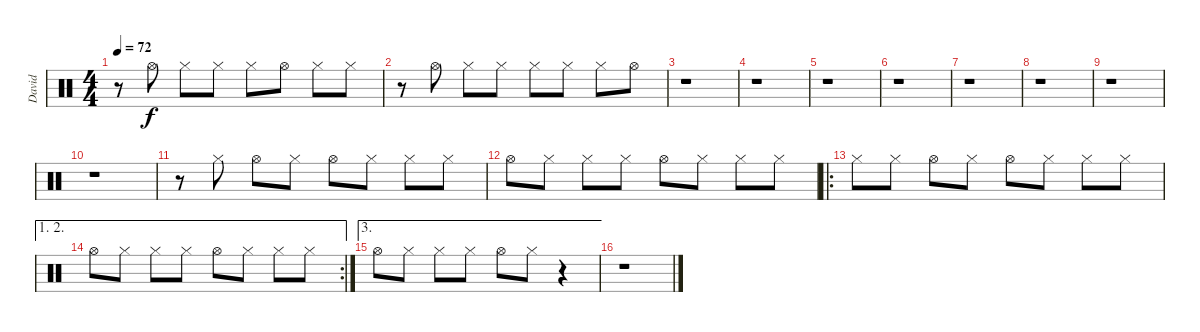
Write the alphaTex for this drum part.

\track ("David" "David") {instrument percussion}
\staff {score}
\articulation defaults
\ts (4 4)
\tempo 72
\clef neutral
\ks c
r.8{dy f} "Hi-Hat (open)".8 "Hi-Hat (closed)".8 "Hi-Hat (closed)".8 "Hi-Hat (closed)".8 "Hi-Hat (open)".8 "Hi-Hat (closed)".8 "Hi-Hat (closed)".8 |
r.8 "Hi-Hat (open)".8 "Hi-Hat (closed)".8 "Hi-Hat (closed)".8 "Hi-Hat (closed)".8 "Hi-Hat (closed)".8 "Hi-Hat (closed)".8 "Hi-Hat (open)".8 |
r.1 |
r.1 |
r.1 |
r.1 |
r.1 |
r.1 |
r.1 |
r.1 |
r.8 "Hi-Hat (closed)".8 "Hi-Hat (open)".8 "Hi-Hat (closed)".8 "Hi-Hat (open)".8 "Hi-Hat (closed)".8 "Hi-Hat (closed)".8 "Hi-Hat (closed)".8 |
"Hi-Hat (open)".8 "Hi-Hat (closed)".8 "Hi-Hat (closed)".8 "Hi-Hat (closed)".8 "Hi-Hat (open)".8 "Hi-Hat (closed)".8 "Hi-Hat (closed)".8 "Hi-Hat (closed)".8 |
\ro "Hi-Hat (closed)".8 "Hi-Hat (closed)".8 "Hi-Hat (open)".8 "Hi-Hat (closed)".8 "Hi-Hat (open)".8 "Hi-Hat (closed)".8 "Hi-Hat (closed)".8 "Hi-Hat (closed)".8
|
\ae (1 2)
\rc 2 "Hi-Hat (open)".8 "Hi-Hat (closed)".8 "Hi-Hat (closed)".8 "Hi-Hat (closed)".8 "Hi-Hat (open)".8 "Hi-Hat (closed)".8 "Hi-Hat (closed)".8 "Hi-Hat (closed)".8
|
\ae 3 "Hi-Hat (open)".8 "Hi-Hat (closed)".8 "Hi-Hat (closed)".8 "Hi-Hat (closed)".8 "Hi-Hat (open)".8 "Hi-Hat (closed)".8
r.4 |
r.1
